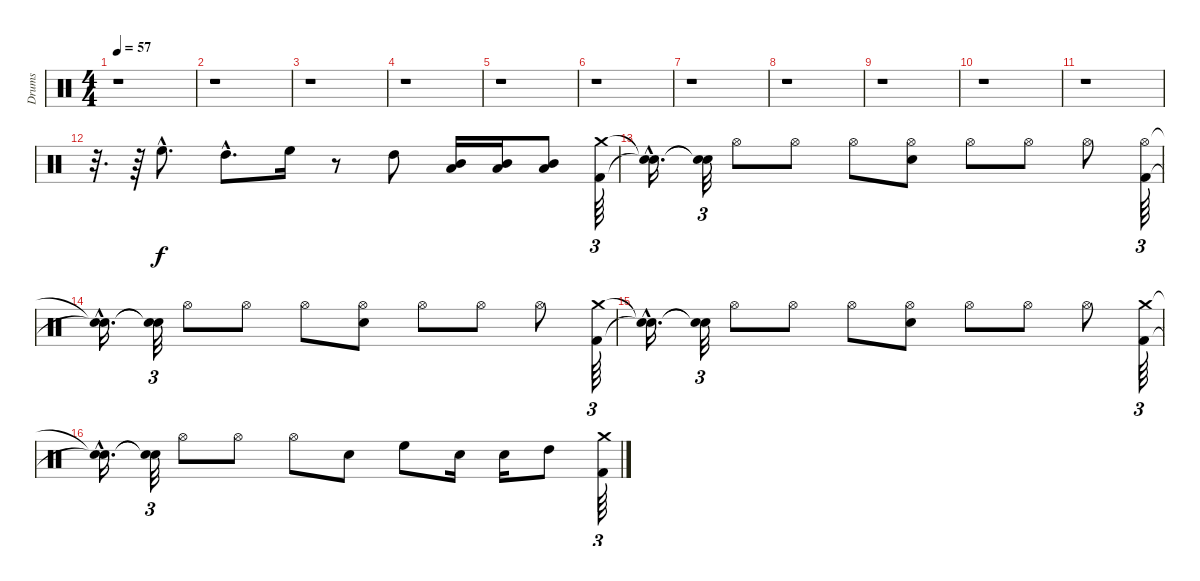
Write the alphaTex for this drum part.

\track ("Drums" "Drums") {instrument percussion}
\staff {score}
\articulation defaults
\ts (4 4)
\tempo 57
\clef neutral
\ks c
r.1{dy f} |
r.1 |
r.1 |
r.1 |
r.1 |
r.1 |
r.1 |
r.1 |
r.1 |
r.1 |
r.1 |
r.32{d} r.64 "High Floor Tom (hit)"{hac}.8{d} "High Tom (hit)"{hac}.8{d} "High Floor Tom (hit)".16 r.8 "High Tom (hit)".8 ("Low Tom (hit)" "Mid Tom (hit)").16 ("Low Tom (hit)" "Mid Tom (hit)").16 ("Mid Tom (hit)" "Low Tom (hit)").8 ("Kick (hit) 2" "Crash medium (hit)").64{tu (3 2)} |
("Snare (hit)"{hac t} "Snare (hit)"{hac t}).16{d} ("Snare (hit)"{t} "Snare (hit)"{t}).32{tu (3 2)} "Hi-Hat (open)".8 "Hi-Hat (open)".8 "Hi-Hat (open)".8 ("Snare (hit) 2" "Hi-Hat (open)").8 "Hi-Hat (open)".8 "Hi-Hat (open)".8 "Hi-Hat (open)".8 ("Hi-Hat (open)" "Kick (hit) 2").64{tu (3 2)} |
("Snare (hit)"{hac t} "Snare (hit)"{hac t}).16{d} ("Snare (hit)"{t} "Snare (hit)"{t}).32{tu (3 2)} "Hi-Hat (open)".8 "Hi-Hat (open)".8 "Hi-Hat (open)".8 ("Hi-Hat (open)" "Snare (hit) 2").8 "Hi-Hat (open)".8 "Hi-Hat (open)".8 "Hi-Hat (open)".8 ("Kick (hit) 2" "Crash medium (hit)").64{tu (3 2)} |
("Snare (hit)"{hac t} "Snare (hit)"{hac t}).16{d} ("Snare (hit)"{t} "Snare (hit)"{t}).32{tu (3 2)} "Hi-Hat (open)".8 "Hi-Hat (open)".8 "Hi-Hat (open)".8 ("Snare (hit) 2" "Hi-Hat (open)").8 "Hi-Hat (open)".8 "Hi-Hat (open)".8 "Hi-Hat (open)".8 ("Kick (hit) 2" "Crash medium (hit)").64{tu (3 2)} |
("Snare (hit)"{hac t} "Snare (hit)"{hac t}).16{d} ("Snare (hit)"{t} "Snare (hit)"{t}).32{tu (3 2)} "Hi-Hat (open)".8 "Hi-Hat (open)".8 "Hi-Hat (open)".8 "Snare (hit) 2".8 "High Floor Tom (hit)".8 "Snare (hit) 2".16 "Snare (hit) 2".16 "High Tom (hit)".8 ("Kick (hit) 2" "Crash medium (hit)").64{tu (3 2)}
